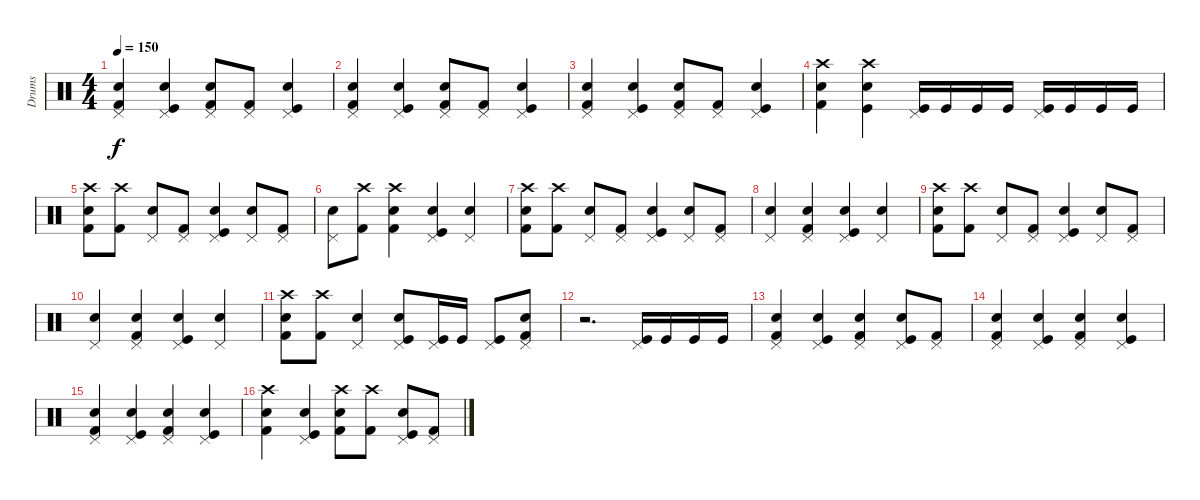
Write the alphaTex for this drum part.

\track ("Drums" "Drums") {instrument percussion}
\staff {score}
\articulation defaults
\ts (4 4)
\tempo 150
\clef neutral
\ks c
("Kick (hit) 2" "Electric Snare (hit)" "Pedal Hi-Hat (hit)").4{dy f} ("Kick (hit)" "Electric Snare (hit)" "Pedal Hi-Hat (hit)").4 ("Kick (hit) 2" "Electric Snare (hit)" "Pedal Hi-Hat (hit)").8 ("Kick (hit) 2" "Pedal Hi-Hat (hit)").8 ("Kick (hit)" "Electric Snare (hit)" "Pedal Hi-Hat (hit)").4 |
("Kick (hit) 2" "Electric Snare (hit)" "Pedal Hi-Hat (hit)").4 ("Kick (hit)" "Electric Snare (hit)" "Pedal Hi-Hat (hit)").4 ("Kick (hit) 2" "Electric Snare (hit)" "Pedal Hi-Hat (hit)").8 ("Kick (hit) 2" "Pedal Hi-Hat (hit)").8 ("Kick (hit)" "Electric Snare (hit)" "Pedal Hi-Hat (hit)").4 |
("Kick (hit) 2" "Electric Snare (hit)" "Pedal Hi-Hat (hit)").4 ("Kick (hit)" "Electric Snare (hit)" "Pedal Hi-Hat (hit)").4 ("Kick (hit) 2" "Electric Snare (hit)" "Pedal Hi-Hat (hit)").8 ("Kick (hit) 2" "Pedal Hi-Hat (hit)").8 ("Kick (hit)" "Electric Snare (hit)" "Pedal Hi-Hat (hit)").4 |
("Kick (hit) 2" "Electric Snare (hit)" "Crash high (hit)").4 ("Kick (hit)" "Electric Snare (hit)" "Crash high (hit)").4 ("Kick (hit)" "Pedal Hi-Hat (hit)").16 "Kick (hit)".16 "Kick (hit)".16 "Kick (hit)".16 ("Kick (hit)" "Pedal Hi-Hat (hit)").16 "Kick (hit)".16 "Kick (hit)".16 "Kick (hit)".16 |
("Kick (hit) 2" "Electric Snare (hit)" "Crash high (hit)").8 ("Kick (hit) 2" "Crash high (hit)").8 ("Electric Snare (hit)" "Pedal Hi-Hat (hit)").8 ("Kick (hit) 2" "Pedal Hi-Hat (hit)").8 ("Kick (hit)" "Electric Snare (hit)" "Pedal Hi-Hat (hit)").4 ("Electric Snare (hit)" "Pedal Hi-Hat (hit)").8 ("Kick (hit) 2" "Pedal Hi-Hat (hit)").8 |
("Electric Snare (hit)" "Pedal Hi-Hat (hit)").8 ("Kick (hit) 2" "Crash high (hit)").8 ("Kick (hit) 2" "Electric Snare (hit)" "Crash high (hit)").4 ("Kick (hit)" "Electric Snare (hit)" "Pedal Hi-Hat (hit)").4 ("Electric Snare (hit)" "Pedal Hi-Hat (hit)").4 |
("Kick (hit) 2" "Electric Snare (hit)" "Crash high (hit)").8 ("Kick (hit) 2" "Crash high (hit)").8 ("Electric Snare (hit)" "Pedal Hi-Hat (hit)").8 ("Kick (hit) 2" "Pedal Hi-Hat (hit)").8 ("Kick (hit)" "Electric Snare (hit)" "Pedal Hi-Hat (hit)").4 ("Electric Snare (hit)" "Pedal Hi-Hat (hit)").8 ("Kick (hit) 2" "Pedal Hi-Hat (hit)").8 |
("Electric Snare (hit)" "Pedal Hi-Hat (hit)").4 ("Kick (hit) 2" "Electric Snare (hit)" "Pedal Hi-Hat (hit)").4 ("Kick (hit)" "Electric Snare (hit)" "Pedal Hi-Hat (hit)").4 ("Electric Snare (hit)" "Pedal Hi-Hat (hit)").4 |
("Kick (hit) 2" "Electric Snare (hit)" "Crash high (hit)").8 ("Kick (hit) 2" "Crash high (hit)").8 ("Electric Snare (hit)" "Pedal Hi-Hat (hit)").8 ("Kick (hit) 2" "Pedal Hi-Hat (hit)").8 ("Kick (hit)" "Electric Snare (hit)" "Pedal Hi-Hat (hit)").4 ("Electric Snare (hit)" "Pedal Hi-Hat (hit)").8 ("Kick (hit) 2" "Pedal Hi-Hat (hit)").8 |
("Electric Snare (hit)" "Pedal Hi-Hat (hit)").4 ("Kick (hit) 2" "Electric Snare (hit)" "Pedal Hi-Hat (hit)").4 ("Kick (hit)" "Electric Snare (hit)" "Pedal Hi-Hat (hit)").4 ("Electric Snare (hit)" "Pedal Hi-Hat (hit)").4 |
("Kick (hit) 2" "Electric Snare (hit)" "Crash high (hit)").8 ("Kick (hit) 2" "Crash high (hit)").8 ("Electric Snare (hit)" "Pedal Hi-Hat (hit)").4 ("Kick (hit)" "Electric Snare (hit)" "Pedal Hi-Hat (hit)").8 ("Kick (hit)" "Pedal Hi-Hat (hit)").16 "Kick (hit)".16 ("Kick (hit)" "Pedal Hi-Hat (hit)").8 ("Kick (hit) 2" "Electric Snare (hit)" "Pedal Hi-Hat (hit)").8 |
r.2{d} ("Kick (hit)" "Pedal Hi-Hat (hit)").16 "Kick (hit)".16 "Kick (hit)".16 "Kick (hit)".16 |
("Kick (hit) 2" "Electric Snare (hit)" "Pedal Hi-Hat (hit)").4 ("Kick (hit)" "Electric Snare (hit)" "Pedal Hi-Hat (hit)").4 ("Kick (hit) 2" "Electric Snare (hit)" "Pedal Hi-Hat (hit)").4 ("Kick (hit)" "Electric Snare (hit)" "Pedal Hi-Hat (hit)").8 ("Kick (hit) 2" "Pedal Hi-Hat (hit)").8 |
("Kick (hit) 2" "Electric Snare (hit)" "Pedal Hi-Hat (hit)").4 ("Kick (hit)" "Electric Snare (hit)" "Pedal Hi-Hat (hit)").4 ("Kick (hit) 2" "Electric Snare (hit)" "Pedal Hi-Hat (hit)").4 ("Kick (hit)" "Electric Snare (hit)" "Pedal Hi-Hat (hit)").4 |
("Kick (hit) 2" "Electric Snare (hit)" "Pedal Hi-Hat (hit)").4 ("Kick (hit)" "Electric Snare (hit)" "Pedal Hi-Hat (hit)").4 ("Kick (hit) 2" "Electric Snare (hit)" "Pedal Hi-Hat (hit)").4 ("Kick (hit)" "Electric Snare (hit)" "Pedal Hi-Hat (hit)").4 |
("Kick (hit) 2" "Electric Snare (hit)" "Crash high (hit)").4 ("Kick (hit)" "Electric Snare (hit)" "Pedal Hi-Hat (hit)").4 ("Kick (hit) 2" "Electric Snare (hit)" "Crash high (hit)").8 ("Kick (hit) 2" "Crash high (hit)").8 ("Kick (hit)" "Electric Snare (hit)" "Pedal Hi-Hat (hit)").8 ("Kick (hit) 2" "Pedal Hi-Hat (hit)").8
